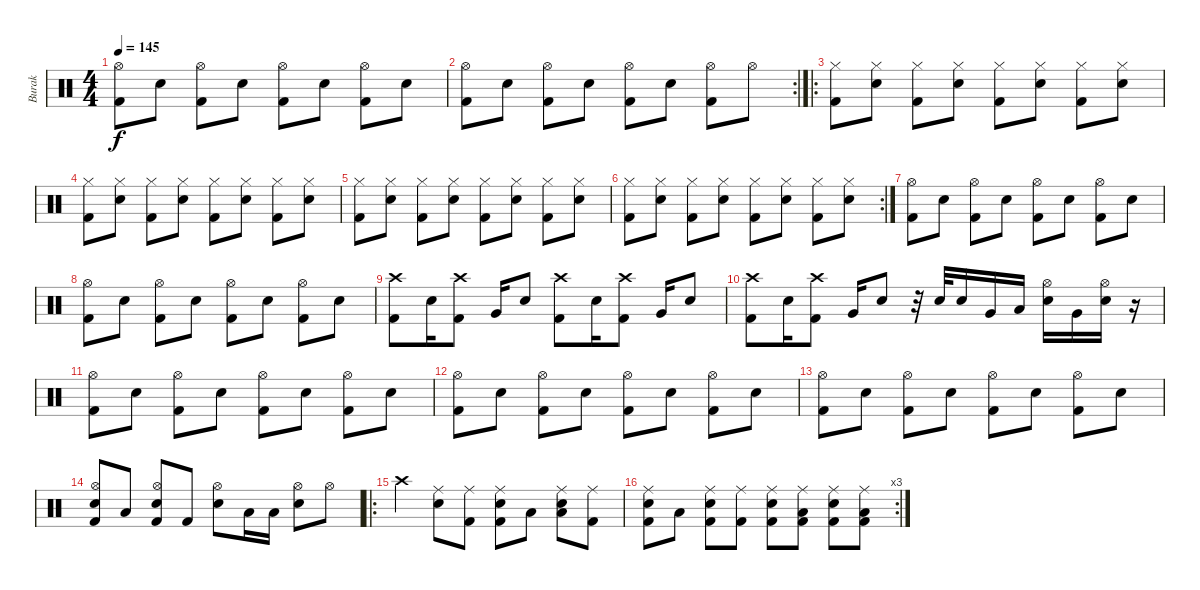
\track ("Burak" "Burak") {instrument percussion}
\staff {score}
\articulation defaults
\ts (4 4)
\tempo 145
\clef neutral
\ks c
("Kick (hit) 2" "Hi-Hat (open)").8{dy f} "Electric Snare (hit)".8 ("Kick (hit) 2" "Hi-Hat (open)").8 "Electric Snare (hit)".8 ("Kick (hit) 2" "Hi-Hat (open)").8 "Electric Snare (hit)".8 ("Kick (hit) 2" "Hi-Hat (open)").8 "Electric Snare (hit)".8 |
\rc 2
("Kick (hit) 2" "Hi-Hat (open)").8 "Electric Snare (hit)".8 ("Kick (hit) 2" "Hi-Hat (open)").8 "Electric Snare (hit)".8 ("Kick (hit) 2" "Hi-Hat (open)").8 "Electric Snare (hit)".8 ("Kick (hit) 2" "Hi-Hat (open)").8 "Hi-Hat (open)".8 |
\ro
("Hi-Hat (closed)" "Kick (hit) 2").8 ("Hi-Hat (closed)" "Electric Snare (hit)").8 ("Hi-Hat (closed)" "Kick (hit) 2").8 ("Hi-Hat (closed)" "Electric Snare (hit)").8 ("Hi-Hat (closed)" "Kick (hit) 2").8 ("Hi-Hat (closed)" "Electric Snare (hit)").8 ("Hi-Hat (closed)" "Kick (hit) 2").8 ("Hi-Hat (closed)" "Electric Snare (hit)").8 |
("Hi-Hat (closed)" "Kick (hit) 2").8 ("Hi-Hat (closed)" "Electric Snare (hit)").8 ("Hi-Hat (closed)" "Kick (hit) 2").8 ("Hi-Hat (closed)" "Electric Snare (hit)").8 ("Hi-Hat (closed)" "Kick (hit) 2").8 ("Hi-Hat (closed)" "Electric Snare (hit)").8 ("Hi-Hat (closed)" "Kick (hit) 2").8 ("Hi-Hat (closed)" "Electric Snare (hit)").8 |
("Hi-Hat (closed)" "Kick (hit) 2").8 ("Hi-Hat (closed)" "Electric Snare (hit)").8 ("Hi-Hat (closed)" "Kick (hit) 2").8 ("Hi-Hat (closed)" "Electric Snare (hit)").8 ("Hi-Hat (closed)" "Kick (hit) 2").8 ("Hi-Hat (closed)" "Electric Snare (hit)").8 ("Hi-Hat (closed)" "Kick (hit) 2").8 ("Hi-Hat (closed)" "Electric Snare (hit)").8 |
\rc 2
("Hi-Hat (closed)" "Kick (hit) 2").8 ("Hi-Hat (closed)" "Electric Snare (hit)").8 ("Hi-Hat (closed)" "Kick (hit) 2").8 ("Hi-Hat (closed)" "Electric Snare (hit)").8 ("Hi-Hat (closed)" "Kick (hit) 2").8 ("Hi-Hat (closed)" "Electric Snare (hit)").8 ("Hi-Hat (closed)" "Kick (hit) 2").8 ("Hi-Hat (closed)" "Electric Snare (hit)").8 |
("Hi-Hat (open)" "Kick (hit) 2").8 "Electric Snare (hit)".8 ("Hi-Hat (open)" "Kick (hit) 2").8 "Electric Snare (hit)".8 ("Hi-Hat (open)" "Kick (hit) 2").8 "Electric Snare (hit)".8 ("Hi-Hat (open)" "Kick (hit) 2").8 "Electric Snare (hit)".8 |
("Hi-Hat (open)" "Kick (hit) 2").8 "Electric Snare (hit)".8 ("Hi-Hat (open)" "Kick (hit) 2").8 "Electric Snare (hit)".8 ("Hi-Hat (open)" "Kick (hit) 2").8 "Electric Snare (hit)".8 ("Hi-Hat (open)" "Kick (hit) 2").8 "Electric Snare (hit)".8 |
("Crash high (hit)" "Kick (hit) 2").8 "Electric Snare (hit)".16 ("Crash high (hit)" "Kick (hit) 2").8 "Very Low Tom (hit)".16 "Electric Snare (hit)".8 ("Crash high (hit)" "Kick (hit) 2").8 "Electric Snare (hit)".16 ("Crash high (hit)" "Kick (hit) 2").8 "Very Low Tom (hit)".16 "Electric Snare (hit)".8 |
("Crash high (hit)" "Kick (hit) 2").8 "Electric Snare (hit)".16 ("Crash high (hit)" "Kick (hit) 2").8 "Very Low Tom (hit)".16 "Electric Snare (hit)".8 r.32 "Electric Snare (hit)".32 "Electric Snare (hit)".16 "Very Low Tom (hit)".16 "Low Tom (hit)".16 ("Hi-Hat (open)" "Electric Snare (hit)").16 "Very Low Tom (hit)".16 ("Hi-Hat (open)" "Electric Snare (hit)").16 r.16 |
("Hi-Hat (open)" "Kick (hit) 2").8 "Electric Snare (hit)".8 ("Hi-Hat (open)" "Kick (hit) 2").8 "Electric Snare (hit)".8 ("Hi-Hat (open)" "Kick (hit) 2").8 "Electric Snare (hit)".8 ("Hi-Hat (open)" "Kick (hit) 2").8 "Electric Snare (hit)".8 |
("Hi-Hat (open)" "Kick (hit) 2").8 "Electric Snare (hit)".8 ("Hi-Hat (open)" "Kick (hit) 2").8 "Electric Snare (hit)".8 ("Hi-Hat (open)" "Kick (hit) 2").8 "Electric Snare (hit)".8 ("Hi-Hat (open)" "Kick (hit) 2").8 "Electric Snare (hit)".8 |
("Hi-Hat (open)" "Kick (hit) 2").8 "Electric Snare (hit)".8 ("Hi-Hat (open)" "Kick (hit) 2").8 "Electric Snare (hit)".8 ("Hi-Hat (open)" "Kick (hit) 2").8 "Electric Snare (hit)".8 ("Hi-Hat (open)" "Kick (hit) 2").8 "Electric Snare (hit)".8 |
("Electric Snare (hit)" "Kick (hit) 2" "Hi-Hat (open)").8 "Low Tom (hit)".8 ("Electric Snare (hit)" "Kick (hit) 2" "Hi-Hat (open)").8 "Kick (hit) 2".8 ("Electric Snare (hit)" "Hi-Hat (open)").8 "Low Tom (hit)".16 "Low Tom (hit)".16 ("Electric Snare (hit)" "Hi-Hat (open)").8 "Hi-Hat (open)".8 |
\ro "Crash high (hit)".4
("Electric Snare (hit)" "Ride (middle)").8 ("Kick (hit) 2" "Ride (middle)").8 ("Electric Snare (hit)" "Kick (hit) 2" "Ride (middle)").8 "Low Tom (hit)".8 ("Electric Snare (hit)" "Low Floor Tom (hit)" "Ride (middle)").8 ("Kick (hit) 2" "Ride (middle)").8 |
\rc 3
("Electric Snare (hit)" "Kick (hit) 2" "Ride (middle)").8 "Low Tom (hit)".8 ("Electric Snare (hit)" "Kick (hit) 2" "Ride (middle)").8 ("Kick (hit) 2" "Ride (middle)").8 ("Electric Snare (hit)" "Kick (hit) 2" "Ride (middle)").8 ("Low Tom (hit)" "Kick (hit) 2" "Ride (middle)").8 ("Electric Snare (hit)" "Kick (hit) 2" "Ride (middle)").8 ("Low Tom (hit)" "Kick (hit) 2" "Ride (middle)").8
